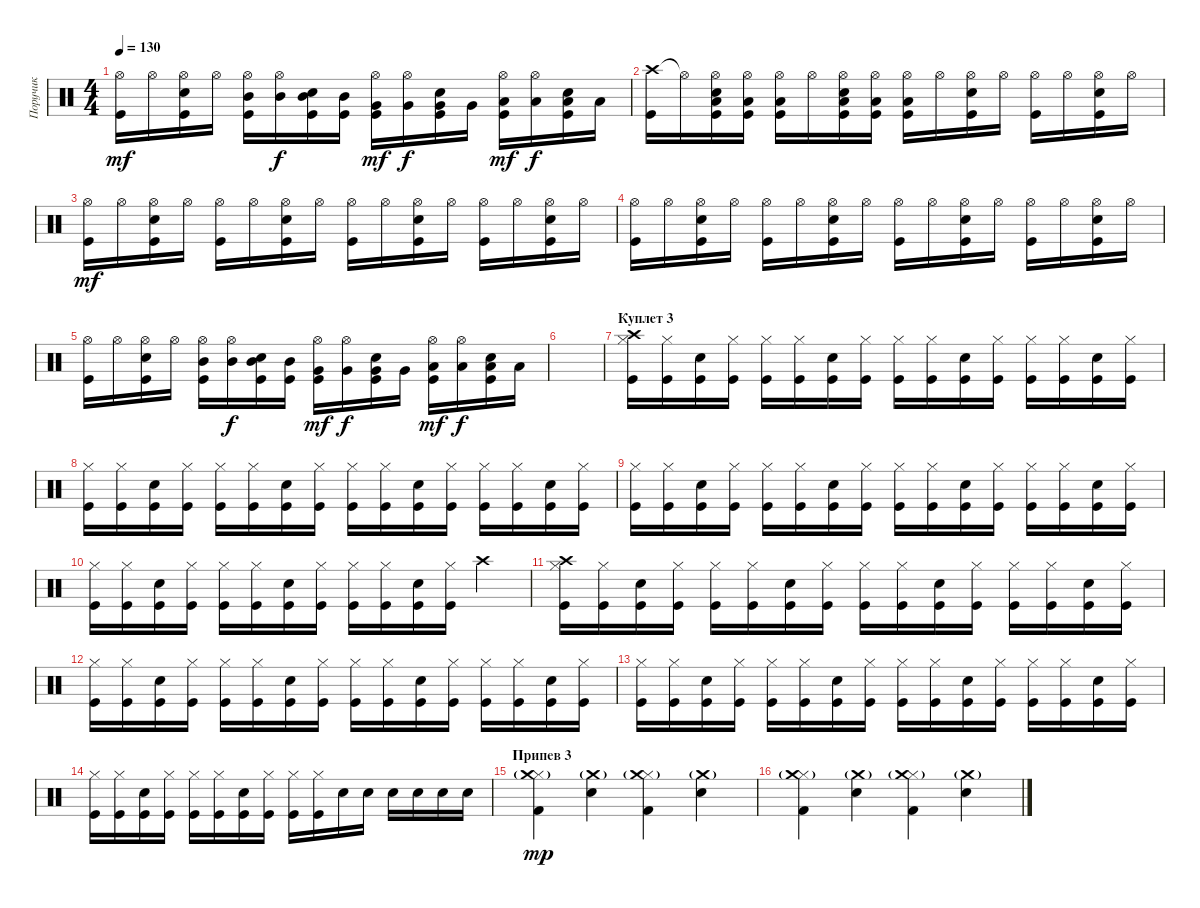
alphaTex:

\track ("Поручик" "Поручик") {instrument percussion}
\staff {score}
\articulation defaults
\ts (4 4)
\tempo 130
\clef neutral
\ks c
("Hi-Hat (open)" "Kick (hit)").16{dy mf} "Hi-Hat (open)".16 ("Hi-Hat (open)" "Snare (hit) 2" "Kick (hit)").16 "Hi-Hat (open)".16 ("Hi-Hat (open)" "Mid Tom (hit)" "Kick (hit)").16 ("Hi-Hat (open)" "Mid Tom (hit)").16{dy f} ("Mid Tom (hit)" "Snare (hit) 2" "Kick (hit)").16 ("Mid Tom (hit)" "Kick (hit)").16 ("Hi-Hat (open)" "Very Low Tom (hit)" "Kick (hit)").16{dy mf} ("Hi-Hat (open)" "Very Low Tom (hit)").16{dy f} ("Very Low Tom (hit)" "Snare (hit) 2" "Kick (hit)").16 "Very Low Tom (hit)".16 ("Hi-Hat (open)" "Low Tom (hit)" "Kick (hit)").16{dy mf} ("Hi-Hat (open)" "Low Tom (hit)").16{dy f} ("Snare (hit) 2" "Low Tom (hit)" "Kick (hit)").16 "Low Tom (hit)".16 |
("Crash high (hit)" "Kick (hit)").16 "Hi-Hat (open)"{t}.16 ("Hi-Hat (open)" "Snare (hit) 2" "Low Tom (hit)" "Kick (hit)").16 ("Hi-Hat (open)" "Low Tom (hit)" "Kick (hit)").16 ("Hi-Hat (open)" "Low Tom (hit)" "Kick (hit)").16 "Hi-Hat (open)".16 ("Hi-Hat (open)" "Snare (hit) 2" "Low Tom (hit)" "Kick (hit)").16 ("Hi-Hat (open)" "Low Tom (hit)" "Kick (hit)").16 ("Hi-Hat (open)" "Low Tom (hit)" "Kick (hit)").16 "Hi-Hat (open)".16 ("Hi-Hat (open)" "Snare (hit) 2" "Kick (hit)").16 "Hi-Hat (open)".16 ("Hi-Hat (open)" "Kick (hit)").16 "Hi-Hat (open)".16 ("Hi-Hat (open)" "Snare (hit) 2" "Kick (hit)").16 "Hi-Hat (open)".16 |
("Hi-Hat (open)" "Kick (hit)").16{dy mf} "Hi-Hat (open)".16 ("Hi-Hat (open)" "Snare (hit) 2" "Kick (hit)").16 "Hi-Hat (open)".16 ("Hi-Hat (open)" "Kick (hit)").16 "Hi-Hat (open)".16 ("Hi-Hat (open)" "Snare (hit) 2" "Kick (hit)").16 "Hi-Hat (open)".16 ("Hi-Hat (open)" "Kick (hit)").16 "Hi-Hat (open)".16 ("Hi-Hat (open)" "Snare (hit) 2" "Kick (hit)").16 "Hi-Hat (open)".16 ("Hi-Hat (open)" "Kick (hit)").16 "Hi-Hat (open)".16 ("Hi-Hat (open)" "Snare (hit) 2" "Kick (hit)").16 "Hi-Hat (open)".16 |
("Hi-Hat (open)" "Kick (hit)").16 "Hi-Hat (open)".16 ("Hi-Hat (open)" "Snare (hit) 2" "Kick (hit)").16 "Hi-Hat (open)".16 ("Hi-Hat (open)" "Kick (hit)").16 "Hi-Hat (open)".16 ("Hi-Hat (open)" "Snare (hit) 2" "Kick (hit)").16 "Hi-Hat (open)".16 ("Hi-Hat (open)" "Kick (hit)").16 "Hi-Hat (open)".16 ("Hi-Hat (open)" "Snare (hit) 2" "Kick (hit)").16 "Hi-Hat (open)".16 ("Hi-Hat (open)" "Kick (hit)").16 "Hi-Hat (open)".16 ("Hi-Hat (open)" "Snare (hit) 2" "Kick (hit)").16 "Hi-Hat (open)".16 |
("Hi-Hat (open)" "Kick (hit)").16 "Hi-Hat (open)".16 ("Hi-Hat (open)" "Snare (hit) 2" "Kick (hit)").16 "Hi-Hat (open)".16 ("Hi-Hat (open)" "Mid Tom (hit)" "Kick (hit)").16 ("Hi-Hat (open)" "Mid Tom (hit)").16{dy f} ("Mid Tom (hit)" "Snare (hit) 2" "Kick (hit)").16 ("Mid Tom (hit)" "Kick (hit)").16 ("Hi-Hat (open)" "Very Low Tom (hit)" "Kick (hit)").16{dy mf} ("Hi-Hat (open)" "Very Low Tom (hit)").16{dy f} ("Very Low Tom (hit)" "Snare (hit) 2" "Kick (hit)").16 "Very Low Tom (hit)".16 ("Hi-Hat (open)" "Low Tom (hit)" "Kick (hit)").16{dy mf} ("Hi-Hat (open)" "Low Tom (hit)").16{dy f} ("Snare (hit) 2" "Low Tom (hit)" "Kick (hit)").16 "Low Tom (hit)".16 |
|
\section ("" "Куплет 3")
("Hi-Hat (closed)" "Kick (hit)" "Crash high (hit)").16 ("Hi-Hat (closed)" "Kick (hit)").16 ("Snare (hit) 2" "Kick (hit)").16 ("Hi-Hat (closed)" "Kick (hit)").16 ("Hi-Hat (closed)" "Kick (hit)").16 ("Hi-Hat (closed)" "Kick (hit)").16 ("Snare (hit) 2" "Kick (hit)").16 ("Hi-Hat (closed)" "Kick (hit)").16 ("Hi-Hat (closed)" "Kick (hit)").16 ("Hi-Hat (closed)" "Kick (hit)").16 ("Snare (hit) 2" "Kick (hit)").16 ("Hi-Hat (closed)" "Kick (hit)").16 ("Hi-Hat (closed)" "Kick (hit)").16 ("Hi-Hat (closed)" "Kick (hit)").16 ("Snare (hit) 2" "Kick (hit)").16 ("Hi-Hat (closed)" "Kick (hit)").16 |
("Hi-Hat (closed)" "Kick (hit)").16 ("Hi-Hat (closed)" "Kick (hit)").16 ("Snare (hit) 2" "Kick (hit)").16 ("Hi-Hat (closed)" "Kick (hit)").16 ("Hi-Hat (closed)" "Kick (hit)").16 ("Hi-Hat (closed)" "Kick (hit)").16 ("Snare (hit) 2" "Kick (hit)").16 ("Hi-Hat (closed)" "Kick (hit)").16 ("Hi-Hat (closed)" "Kick (hit)").16 ("Hi-Hat (closed)" "Kick (hit)").16 ("Snare (hit) 2" "Kick (hit)").16 ("Hi-Hat (closed)" "Kick (hit)").16 ("Hi-Hat (closed)" "Kick (hit)").16 ("Hi-Hat (closed)" "Kick (hit)").16 ("Snare (hit) 2" "Kick (hit)").16 ("Hi-Hat (closed)" "Kick (hit)").16 |
("Hi-Hat (closed)" "Kick (hit)").16 ("Hi-Hat (closed)" "Kick (hit)").16 ("Snare (hit) 2" "Kick (hit)").16 ("Hi-Hat (closed)" "Kick (hit)").16 ("Hi-Hat (closed)" "Kick (hit)").16 ("Hi-Hat (closed)" "Kick (hit)").16 ("Snare (hit) 2" "Kick (hit)").16 ("Hi-Hat (closed)" "Kick (hit)").16 ("Hi-Hat (closed)" "Kick (hit)").16 ("Hi-Hat (closed)" "Kick (hit)").16 ("Snare (hit) 2" "Kick (hit)").16 ("Hi-Hat (closed)" "Kick (hit)").16 ("Hi-Hat (closed)" "Kick (hit)").16 ("Hi-Hat (closed)" "Kick (hit)").16 ("Snare (hit) 2" "Kick (hit)").16 ("Hi-Hat (closed)" "Kick (hit)").16 |
("Hi-Hat (closed)" "Kick (hit)").16 ("Hi-Hat (closed)" "Kick (hit)").16 ("Snare (hit) 2" "Kick (hit)").16 ("Hi-Hat (closed)" "Kick (hit)").16 ("Hi-Hat (closed)" "Kick (hit)").16 ("Hi-Hat (closed)" "Kick (hit)").16 ("Snare (hit) 2" "Kick (hit)").16 ("Hi-Hat (closed)" "Kick (hit)").16 ("Hi-Hat (closed)" "Kick (hit)").16 ("Hi-Hat (closed)" "Kick (hit)").16 ("Snare (hit) 2" "Kick (hit)").16 ("Hi-Hat (closed)" "Kick (hit)").16 "Crash high (hit)".4 |
("Hi-Hat (closed)" "Kick (hit)" "Crash high (hit)").16 ("Hi-Hat (closed)" "Kick (hit)").16 ("Snare (hit) 2" "Kick (hit)").16 ("Hi-Hat (closed)" "Kick (hit)").16 ("Hi-Hat (closed)" "Kick (hit)").16 ("Hi-Hat (closed)" "Kick (hit)").16 ("Snare (hit) 2" "Kick (hit)").16 ("Hi-Hat (closed)" "Kick (hit)").16 ("Hi-Hat (closed)" "Kick (hit)").16 ("Hi-Hat (closed)" "Kick (hit)").16 ("Snare (hit) 2" "Kick (hit)").16 ("Hi-Hat (closed)" "Kick (hit)").16 ("Hi-Hat (closed)" "Kick (hit)").16 ("Hi-Hat (closed)" "Kick (hit)").16 ("Snare (hit) 2" "Kick (hit)").16 ("Hi-Hat (closed)" "Kick (hit)").16 |
("Hi-Hat (closed)" "Kick (hit)").16 ("Hi-Hat (closed)" "Kick (hit)").16 ("Snare (hit) 2" "Kick (hit)").16 ("Hi-Hat (closed)" "Kick (hit)").16 ("Hi-Hat (closed)" "Kick (hit)").16 ("Hi-Hat (closed)" "Kick (hit)").16 ("Snare (hit) 2" "Kick (hit)").16 ("Hi-Hat (closed)" "Kick (hit)").16 ("Hi-Hat (closed)" "Kick (hit)").16 ("Hi-Hat (closed)" "Kick (hit)").16 ("Snare (hit) 2" "Kick (hit)").16 ("Hi-Hat (closed)" "Kick (hit)").16 ("Hi-Hat (closed)" "Kick (hit)").16 ("Hi-Hat (closed)" "Kick (hit)").16 ("Snare (hit) 2" "Kick (hit)").16 ("Hi-Hat (closed)" "Kick (hit)").16 |
("Hi-Hat (closed)" "Kick (hit)").16 ("Hi-Hat (closed)" "Kick (hit)").16 ("Snare (hit) 2" "Kick (hit)").16 ("Hi-Hat (closed)" "Kick (hit)").16 ("Hi-Hat (closed)" "Kick (hit)").16 ("Hi-Hat (closed)" "Kick (hit)").16 ("Snare (hit) 2" "Kick (hit)").16 ("Hi-Hat (closed)" "Kick (hit)").16 ("Hi-Hat (closed)" "Kick (hit)").16 ("Hi-Hat (closed)" "Kick (hit)").16 ("Snare (hit) 2" "Kick (hit)").16 ("Hi-Hat (closed)" "Kick (hit)").16 ("Hi-Hat (closed)" "Kick (hit)").16 ("Hi-Hat (closed)" "Kick (hit)").16 ("Snare (hit) 2" "Kick (hit)").16 ("Hi-Hat (closed)" "Kick (hit)").16 |
("Hi-Hat (closed)" "Kick (hit)").16 ("Hi-Hat (closed)" "Kick (hit)").16 ("Snare (hit) 2" "Kick (hit)").16 ("Hi-Hat (closed)" "Kick (hit)").16 ("Hi-Hat (closed)" "Kick (hit)").16 ("Hi-Hat (closed)" "Kick (hit)").16 ("Snare (hit) 2" "Kick (hit)").16 ("Hi-Hat (closed)" "Kick (hit)").16 ("Hi-Hat (closed)" "Kick (hit)").16 ("Hi-Hat (closed)" "Kick (hit)").16 "Snare (hit) 2".16 "Snare (hit) 2".16 "Snare (hit) 2".16 "Snare (hit) 2".16 "Snare (hit) 2".16 "Snare (hit) 2".16 |
\section ("" "Припев 3")
("Kick (hit) 2" "Hi-Hat (closed)" "Crash medium (hit)"{g}).4{dy mp} ("Snare (hit) 2" "Crash medium (hit)"{g}).4 ("Kick (hit) 2" "Hi-Hat (closed)" "Crash medium (hit)"{g}).4 ("Snare (hit) 2" "Crash medium (hit)"{g}).4 |
("Kick (hit) 2" "Hi-Hat (closed)" "Crash medium (hit)"{g}).4 ("Snare (hit) 2" "Crash medium (hit)"{g}).4 ("Kick (hit) 2" "Hi-Hat (closed)" "Crash medium (hit)"{g}).4 ("Snare (hit) 2" "Crash medium (hit)"{g}).4
